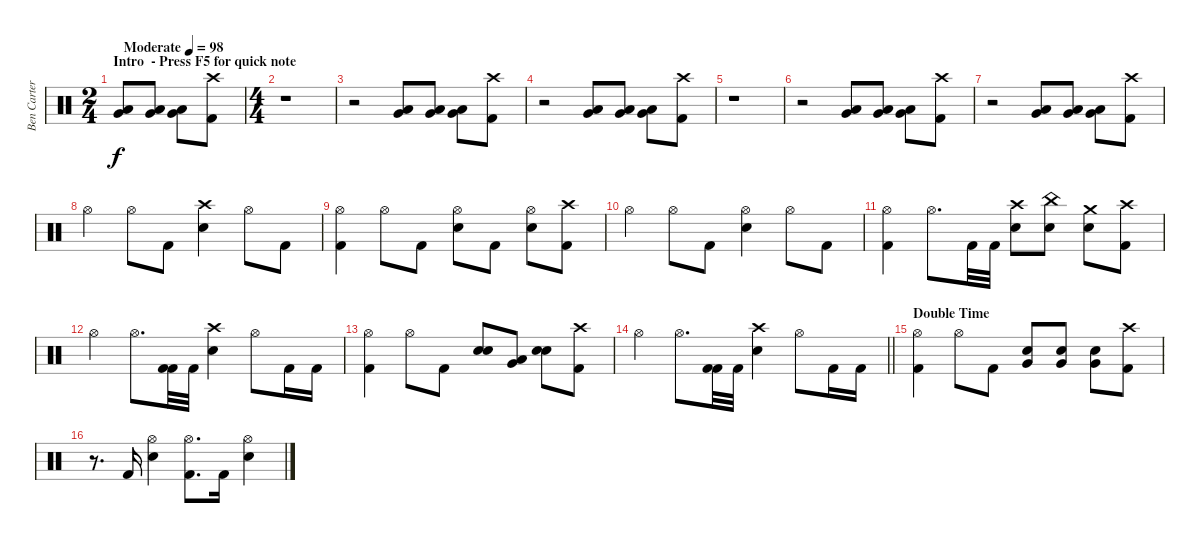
\track ("Ben Carter" "Ben Carter") {instrument percussion}
\staff {score}
\articulation defaults
\ts (2 4)
\section ("" "Intro  - Press F5 for quick note")
\tempo (98 "Moderate")
\clef neutral
\ks c
("Very Low Tom (hit)" "Low Floor Tom (hit)").8{dy f} ("Very Low Tom (hit)" "Low Floor Tom (hit)").8 ("Very Low Tom (hit)" "Low Floor Tom (hit)").8 ("Crash high (hit)" "Kick (hit) 2").8 |
\ts (4 4)
r.1 |
r.2 ("Very Low Tom (hit)" "Low Floor Tom (hit)").8 ("Very Low Tom (hit)" "Low Floor Tom (hit)").8 ("Very Low Tom (hit)" "Low Floor Tom (hit)").8 ("Crash high (hit)" "Kick (hit) 2").8 |
r.2 ("Very Low Tom (hit)" "Low Floor Tom (hit)").8 ("Very Low Tom (hit)" "Low Floor Tom (hit)").8 ("Very Low Tom (hit)" "Low Floor Tom (hit)").8 ("Crash high (hit)" "Kick (hit) 2").8 |
r.1 |
r.2 ("Very Low Tom (hit)" "Low Floor Tom (hit)").8 ("Very Low Tom (hit)" "Low Floor Tom (hit)").8 ("Very Low Tom (hit)" "Low Floor Tom (hit)").8 ("Crash high (hit)" "Kick (hit) 2").8 |
r.2 ("Very Low Tom (hit)" "Low Floor Tom (hit)").8 ("Very Low Tom (hit)" "Low Floor Tom (hit)").8 ("Very Low Tom (hit)" "Low Floor Tom (hit)").8 ("Crash high (hit)" "Kick (hit) 2").8 |
"Hi-Hat (open)".4 "Hi-Hat (open)".8 "Kick (hit) 2".8 ("Crash high (hit)" "Snare (hit) 2").4 "Hi-Hat (open)".8 "Kick (hit) 2".8 |
("Hi-Hat (open)" "Kick (hit) 2").4 "Hi-Hat (open)".8 "Kick (hit) 2".8 ("Hi-Hat (open)" "Snare (hit) 2").8 "Kick (hit) 2".8 ("Hi-Hat (open)" "Snare (hit) 2").8 ("Crash high (hit)" "Kick (hit) 2").8 |
"Hi-Hat (open)".4 "Hi-Hat (open)".8 "Kick (hit) 2".8 ("Hi-Hat (open)" "Snare (hit) 2").4 "Hi-Hat (open)".8 "Kick (hit) 2".8 |
("Hi-Hat (open)" "Kick (hit) 2").4 "Hi-Hat (open)".8{d} "Kick (hit) 2".32 "Kick (hit) 2".32 ("Crash high (hit)" "Snare (hit) 2").8 ("China (hit)" "Snare (hit) 2").8 ("Crash medium (hit)" "Snare (hit) 2").8 ("Crash high (hit)" "Kick (hit) 2").8 |
"Hi-Hat (open)".4 "Hi-Hat (open)".8{d} ("Kick (hit) 2" "Kick (hit) 2").32 "Kick (hit) 2".32 ("Crash high (hit)" "Snare (hit) 2").4 "Hi-Hat (open)".8 "Kick (hit) 2".16 "Kick (hit) 2".16 |
("Hi-Hat (open)" "Kick (hit) 2").4 "Hi-Hat (open)".8 "Kick (hit) 2".8 ("Snare (hit) 2" "Snare (hit) 2").8 ("Very Low Tom (hit)" "Low Tom (hit)").8 ("Snare (hit) 2" "Snare (hit) 2").8 ("Crash high (hit)" "Kick (hit) 2").8 |
\barLineRight lightlight "Hi-Hat (open)".4 "Hi-Hat (open)".8{d}
("Kick (hit) 2" "Kick (hit) 2").32 "Kick (hit) 2".32 ("Crash high (hit)" "Snare (hit) 2").4 "Hi-Hat (open)".8 "Kick (hit) 2".16 "Kick (hit) 2".16 |
\section ("" "Double Time")
("Hi-Hat (open)" "Kick (hit) 2").4 "Hi-Hat (open)".8 "Kick (hit) 2".8 ("Very Low Tom (hit)" "Snare (hit) 2").8 ("Very Low Tom (hit)" "Snare (hit) 2").8 ("Very Low Tom (hit)" "Snare (hit) 2").8 ("Crash high (hit)" "Kick (hit) 2").8 |
r.8{d} "Kick (hit) 2".16 ("Hi-Hat (open)" "Snare (hit) 2").4 ("Hi-Hat (open)" "Kick (hit) 2").8{d} "Kick (hit) 2".16 ("Hi-Hat (open)" "Snare (hit) 2").4
